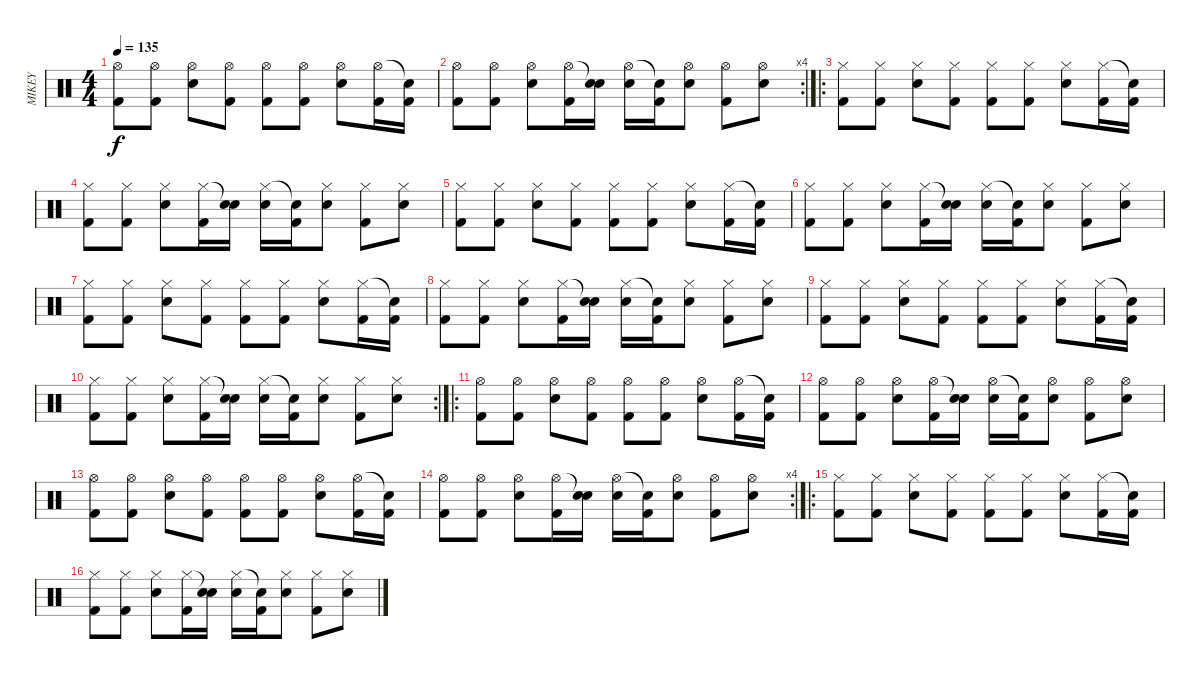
\track ("MIKEY" "MIKEY") {instrument percussion}
\staff {score}
\articulation defaults
\ts (4 4)
\tempo 135
\clef neutral
\ks c
("Hi-Hat (open)" "Kick (hit) 2").8{dy f} ("Hi-Hat (open)" "Kick (hit) 2").8 ("Hi-Hat (open)" "Electric Snare (hit)").8 ("Hi-Hat (open)" "Kick (hit) 2").8 ("Hi-Hat (open)" "Kick (hit) 2").8 ("Hi-Hat (open)" "Kick (hit) 2").8 ("Hi-Hat (open)" "Electric Snare (hit)").8 ("Hi-Hat (open)" "Kick (hit) 2").16 ("Snare (hit)"{t} "Kick (hit) 2").16 |
\rc 4
("Hi-Hat (open)" "Kick (hit) 2").8 ("Hi-Hat (open)" "Kick (hit) 2").8 ("Hi-Hat (open)" "Electric Snare (hit)").8 ("Hi-Hat (open)" "Kick (hit) 2").16 ("Snare (hit)"{t} "Electric Snare (hit)").16 ("Hi-Hat (open)" "Electric Snare (hit)").16 ("Snare (hit)"{t} "Kick (hit) 2").16 ("Hi-Hat (open)" "Electric Snare (hit)").8 ("Hi-Hat (open)" "Kick (hit) 2").8 ("Hi-Hat (open)" "Electric Snare (hit)").8 |
\ro
("Hi-Hat (closed)" "Kick (hit) 2").8 ("Hi-Hat (closed)" "Kick (hit) 2").8 ("Hi-Hat (closed)" "Electric Snare (hit)").8 ("Hi-Hat (closed)" "Kick (hit) 2").8 ("Hi-Hat (closed)" "Kick (hit) 2").8 ("Hi-Hat (closed)" "Kick (hit) 2").8 ("Hi-Hat (closed)" "Electric Snare (hit)").8 ("Hi-Hat (closed)" "Kick (hit) 2").16 ("Snare (hit)"{t} "Kick (hit) 2").16 |
("Hi-Hat (closed)" "Kick (hit) 2").8 ("Hi-Hat (closed)" "Kick (hit) 2").8 ("Hi-Hat (closed)" "Electric Snare (hit)").8 ("Hi-Hat (closed)" "Kick (hit) 2").16 ("Snare (hit)"{t} "Electric Snare (hit)").16 ("Hi-Hat (closed)" "Electric Snare (hit)").16 ("Snare (hit)"{t} "Kick (hit) 2").16 ("Hi-Hat (closed)" "Electric Snare (hit)").8 ("Hi-Hat (closed)" "Kick (hit) 2").8 ("Hi-Hat (closed)" "Electric Snare (hit)").8 |
("Hi-Hat (closed)" "Kick (hit) 2").8 ("Hi-Hat (closed)" "Kick (hit) 2").8 ("Hi-Hat (closed)" "Electric Snare (hit)").8 ("Hi-Hat (closed)" "Kick (hit) 2").8 ("Hi-Hat (closed)" "Kick (hit) 2").8 ("Hi-Hat (closed)" "Kick (hit) 2").8 ("Hi-Hat (closed)" "Electric Snare (hit)").8 ("Hi-Hat (closed)" "Kick (hit) 2").16 ("Snare (hit)"{t} "Kick (hit) 2").16 |
("Hi-Hat (closed)" "Kick (hit) 2").8 ("Hi-Hat (closed)" "Kick (hit) 2").8 ("Hi-Hat (closed)" "Electric Snare (hit)").8 ("Hi-Hat (closed)" "Kick (hit) 2").16 ("Snare (hit)"{t} "Electric Snare (hit)").16 ("Hi-Hat (closed)" "Electric Snare (hit)").16 ("Snare (hit)"{t} "Kick (hit) 2").16 ("Hi-Hat (closed)" "Electric Snare (hit)").8 ("Hi-Hat (closed)" "Kick (hit) 2").8 ("Hi-Hat (closed)" "Electric Snare (hit)").8 |
("Hi-Hat (closed)" "Kick (hit) 2").8 ("Hi-Hat (closed)" "Kick (hit) 2").8 ("Hi-Hat (closed)" "Electric Snare (hit)").8 ("Hi-Hat (closed)" "Kick (hit) 2").8 ("Hi-Hat (closed)" "Kick (hit) 2").8 ("Hi-Hat (closed)" "Kick (hit) 2").8 ("Hi-Hat (closed)" "Electric Snare (hit)").8 ("Hi-Hat (closed)" "Kick (hit) 2").16 ("Snare (hit)"{t} "Kick (hit) 2").16 |
("Hi-Hat (closed)" "Kick (hit) 2").8 ("Hi-Hat (closed)" "Kick (hit) 2").8 ("Hi-Hat (closed)" "Electric Snare (hit)").8 ("Hi-Hat (closed)" "Kick (hit) 2").16 ("Snare (hit)"{t} "Electric Snare (hit)").16 ("Hi-Hat (closed)" "Electric Snare (hit)").16 ("Snare (hit)"{t} "Kick (hit) 2").16 ("Hi-Hat (closed)" "Electric Snare (hit)").8 ("Hi-Hat (closed)" "Kick (hit) 2").8 ("Hi-Hat (closed)" "Electric Snare (hit)").8 |
("Hi-Hat (closed)" "Kick (hit) 2").8 ("Hi-Hat (closed)" "Kick (hit) 2").8 ("Hi-Hat (closed)" "Electric Snare (hit)").8 ("Hi-Hat (closed)" "Kick (hit) 2").8 ("Hi-Hat (closed)" "Kick (hit) 2").8 ("Hi-Hat (closed)" "Kick (hit) 2").8 ("Hi-Hat (closed)" "Electric Snare (hit)").8 ("Hi-Hat (closed)" "Kick (hit) 2").16 ("Snare (hit)"{t} "Kick (hit) 2").16 |
\rc 2
("Hi-Hat (closed)" "Kick (hit) 2").8 ("Hi-Hat (closed)" "Kick (hit) 2").8 ("Hi-Hat (closed)" "Electric Snare (hit)").8 ("Hi-Hat (closed)" "Kick (hit) 2").16 ("Snare (hit)"{t} "Electric Snare (hit)").16 ("Hi-Hat (closed)" "Electric Snare (hit)").16 ("Snare (hit)"{t} "Kick (hit) 2").16 ("Hi-Hat (closed)" "Electric Snare (hit)").8 ("Hi-Hat (closed)" "Kick (hit) 2").8 ("Hi-Hat (closed)" "Electric Snare (hit)").8 |
\ro
("Hi-Hat (open)" "Kick (hit) 2").8 ("Hi-Hat (open)" "Kick (hit) 2").8 ("Hi-Hat (open)" "Electric Snare (hit)").8 ("Hi-Hat (open)" "Kick (hit) 2").8 ("Hi-Hat (open)" "Kick (hit) 2").8 ("Hi-Hat (open)" "Kick (hit) 2").8 ("Hi-Hat (open)" "Electric Snare (hit)").8 ("Hi-Hat (open)" "Kick (hit) 2").16 ("Snare (hit)"{t} "Kick (hit) 2").16 |
("Hi-Hat (open)" "Kick (hit) 2").8 ("Hi-Hat (open)" "Kick (hit) 2").8 ("Hi-Hat (open)" "Electric Snare (hit)").8 ("Hi-Hat (open)" "Kick (hit) 2").16 ("Snare (hit)"{t} "Electric Snare (hit)").16 ("Hi-Hat (open)" "Electric Snare (hit)").16 ("Snare (hit)"{t} "Kick (hit) 2").16 ("Hi-Hat (open)" "Electric Snare (hit)").8 ("Hi-Hat (open)" "Kick (hit) 2").8 ("Hi-Hat (open)" "Electric Snare (hit)").8 |
("Hi-Hat (open)" "Kick (hit) 2").8 ("Hi-Hat (open)" "Kick (hit) 2").8 ("Hi-Hat (open)" "Electric Snare (hit)").8 ("Hi-Hat (open)" "Kick (hit) 2").8 ("Hi-Hat (open)" "Kick (hit) 2").8 ("Hi-Hat (open)" "Kick (hit) 2").8 ("Hi-Hat (open)" "Electric Snare (hit)").8 ("Hi-Hat (open)" "Kick (hit) 2").16 ("Snare (hit)"{t} "Kick (hit) 2").16 |
\rc 4
("Hi-Hat (open)" "Kick (hit) 2").8 ("Hi-Hat (open)" "Kick (hit) 2").8 ("Hi-Hat (open)" "Electric Snare (hit)").8 ("Hi-Hat (open)" "Kick (hit) 2").16 ("Snare (hit)"{t} "Electric Snare (hit)").16 ("Hi-Hat (open)" "Electric Snare (hit)").16 ("Snare (hit)"{t} "Kick (hit) 2").16 ("Hi-Hat (open)" "Electric Snare (hit)").8 ("Hi-Hat (open)" "Kick (hit) 2").8 ("Hi-Hat (open)" "Electric Snare (hit)").8 |
\ro
("Hi-Hat (closed)" "Kick (hit) 2").8 ("Hi-Hat (closed)" "Kick (hit) 2").8 ("Hi-Hat (closed)" "Electric Snare (hit)").8 ("Hi-Hat (closed)" "Kick (hit) 2").8 ("Hi-Hat (closed)" "Kick (hit) 2").8 ("Hi-Hat (closed)" "Kick (hit) 2").8 ("Hi-Hat (closed)" "Electric Snare (hit)").8 ("Hi-Hat (closed)" "Kick (hit) 2").16 ("Snare (hit)"{t} "Kick (hit) 2").16 |
("Hi-Hat (closed)" "Kick (hit) 2").8 ("Hi-Hat (closed)" "Kick (hit) 2").8 ("Hi-Hat (closed)" "Electric Snare (hit)").8 ("Hi-Hat (closed)" "Kick (hit) 2").16 ("Snare (hit)"{t} "Electric Snare (hit)").16 ("Hi-Hat (closed)" "Electric Snare (hit)").16 ("Snare (hit)"{t} "Kick (hit) 2").16 ("Hi-Hat (closed)" "Electric Snare (hit)").8 ("Hi-Hat (closed)" "Kick (hit) 2").8 ("Hi-Hat (closed)" "Electric Snare (hit)").8
